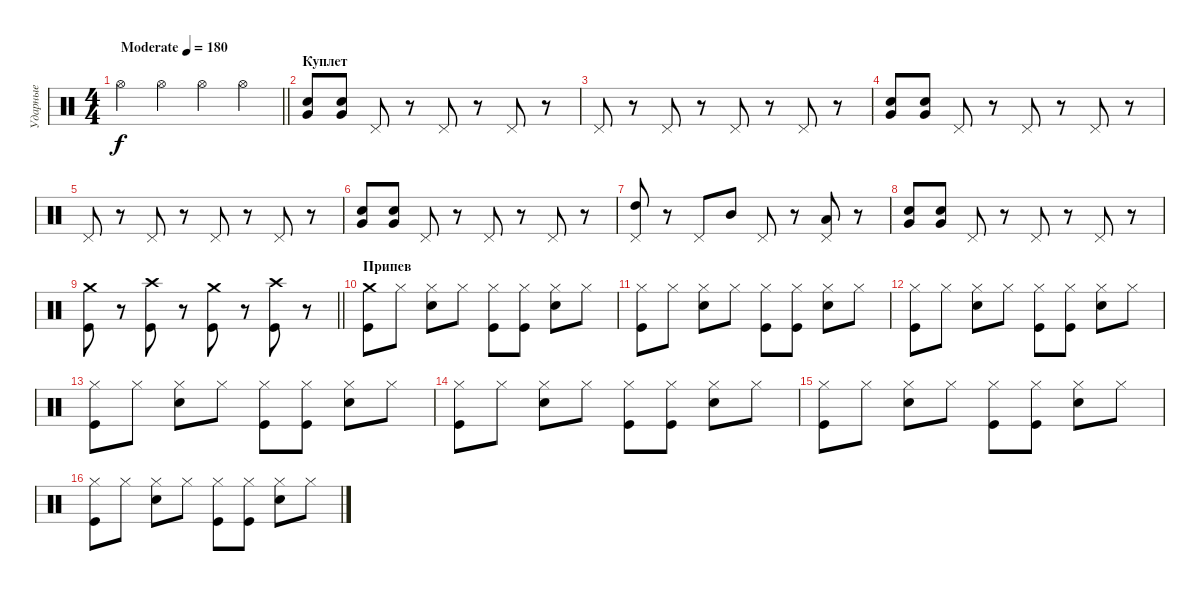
\track ("Ударные" "Ударные") {instrument percussion}
\staff {score}
\articulation defaults
\ts (4 4)
\tempo (180 "Moderate")
\clef neutral
\barLineRight lightlight
\ks c "Hi-Hat (open)".4{dy f} "Hi-Hat (open)".4 "Hi-Hat (open)".4 "Hi-Hat (open)".4
|
\section ("" "Куплет")
("Very Low Tom (hit)" "Electric Snare (hit)").8 ("Very Low Tom (hit)" "Electric Snare (hit)").8 "Pedal Hi-Hat (hit)".8 r.8 "Pedal Hi-Hat (hit)".8 r.8 "Pedal Hi-Hat (hit)".8 r.8 |
"Pedal Hi-Hat (hit)".8 r.8 "Pedal Hi-Hat (hit)".8 r.8 "Pedal Hi-Hat (hit)".8 r.8 "Pedal Hi-Hat (hit)".8 r.8 |
("Very Low Tom (hit)" "Electric Snare (hit)").8 ("Very Low Tom (hit)" "Electric Snare (hit)").8 "Pedal Hi-Hat (hit)".8 r.8 "Pedal Hi-Hat (hit)".8 r.8 "Pedal Hi-Hat (hit)".8 r.8 |
"Pedal Hi-Hat (hit)".8 r.8 "Pedal Hi-Hat (hit)".8 r.8 "Pedal Hi-Hat (hit)".8 r.8 "Pedal Hi-Hat (hit)".8 r.8 |
("Very Low Tom (hit)" "Electric Snare (hit)").8 ("Very Low Tom (hit)" "Electric Snare (hit)").8 "Pedal Hi-Hat (hit)".8 r.8 "Pedal Hi-Hat (hit)".8 r.8 "Pedal Hi-Hat (hit)".8 r.8 |
("High Tom (hit)" "Pedal Hi-Hat (hit)").8 r.8 "Pedal Hi-Hat (hit)".8 "Mid Tom (hit)".8 "Pedal Hi-Hat (hit)".8 r.8 ("Low Tom (hit)" "Pedal Hi-Hat (hit)").8 r.8 |
("Very Low Tom (hit)" "Electric Snare (hit)").8 ("Very Low Tom (hit)" "Electric Snare (hit)").8 "Pedal Hi-Hat (hit)".8 r.8 "Pedal Hi-Hat (hit)".8 r.8 "Pedal Hi-Hat (hit)".8 r.8 |
\barLineRight lightlight
("Crash medium (hit)" "Kick (hit)").8 r.8 ("Crash high (hit)" "Kick (hit)").8 r.8 ("Crash medium (hit)" "Kick (hit)").8 r.8 ("Crash high (hit)" "Kick (hit)").8 r.8 |
\section ("" "Припев")
("Crash medium (hit)" "Kick (hit)").8 "Hi-Hat (closed)".8 ("Hi-Hat (closed)" "Electric Snare (hit)").8 "Hi-Hat (closed)".8 ("Hi-Hat (closed)" "Kick (hit)").8 ("Hi-Hat (closed)" "Kick (hit)").8 ("Hi-Hat (closed)" "Electric Snare (hit)").8 "Hi-Hat (closed)".8 |
("Hi-Hat (closed)" "Kick (hit)").8 "Hi-Hat (closed)".8 ("Hi-Hat (closed)" "Electric Snare (hit)").8 "Hi-Hat (closed)".8 ("Hi-Hat (closed)" "Kick (hit)").8 ("Hi-Hat (closed)" "Kick (hit)").8 ("Hi-Hat (closed)" "Electric Snare (hit)").8 "Hi-Hat (closed)".8 |
("Hi-Hat (closed)" "Kick (hit)").8 "Hi-Hat (closed)".8 ("Hi-Hat (closed)" "Electric Snare (hit)").8 "Hi-Hat (closed)".8 ("Hi-Hat (closed)" "Kick (hit)").8 ("Hi-Hat (closed)" "Kick (hit)").8 ("Hi-Hat (closed)" "Electric Snare (hit)").8 "Hi-Hat (closed)".8 |
("Hi-Hat (closed)" "Kick (hit)").8 "Hi-Hat (closed)".8 ("Hi-Hat (closed)" "Electric Snare (hit)").8 "Hi-Hat (closed)".8 ("Hi-Hat (closed)" "Kick (hit)").8 ("Hi-Hat (closed)" "Kick (hit)").8 ("Hi-Hat (closed)" "Electric Snare (hit)").8 "Hi-Hat (closed)".8 |
("Hi-Hat (closed)" "Kick (hit)").8 "Hi-Hat (closed)".8 ("Hi-Hat (closed)" "Electric Snare (hit)").8 "Hi-Hat (closed)".8 ("Hi-Hat (closed)" "Kick (hit)").8 ("Hi-Hat (closed)" "Kick (hit)").8 ("Hi-Hat (closed)" "Electric Snare (hit)").8 "Hi-Hat (closed)".8 |
("Hi-Hat (closed)" "Kick (hit)").8 "Hi-Hat (closed)".8 ("Hi-Hat (closed)" "Electric Snare (hit)").8 "Hi-Hat (closed)".8 ("Hi-Hat (closed)" "Kick (hit)").8 ("Hi-Hat (closed)" "Kick (hit)").8 ("Hi-Hat (closed)" "Electric Snare (hit)").8 "Hi-Hat (closed)".8 |
("Hi-Hat (closed)" "Kick (hit)").8 "Hi-Hat (closed)".8 ("Hi-Hat (closed)" "Electric Snare (hit)").8 "Hi-Hat (closed)".8 ("Hi-Hat (closed)" "Kick (hit)").8 ("Hi-Hat (closed)" "Kick (hit)").8 ("Hi-Hat (closed)" "Electric Snare (hit)").8 "Hi-Hat (closed)".8
